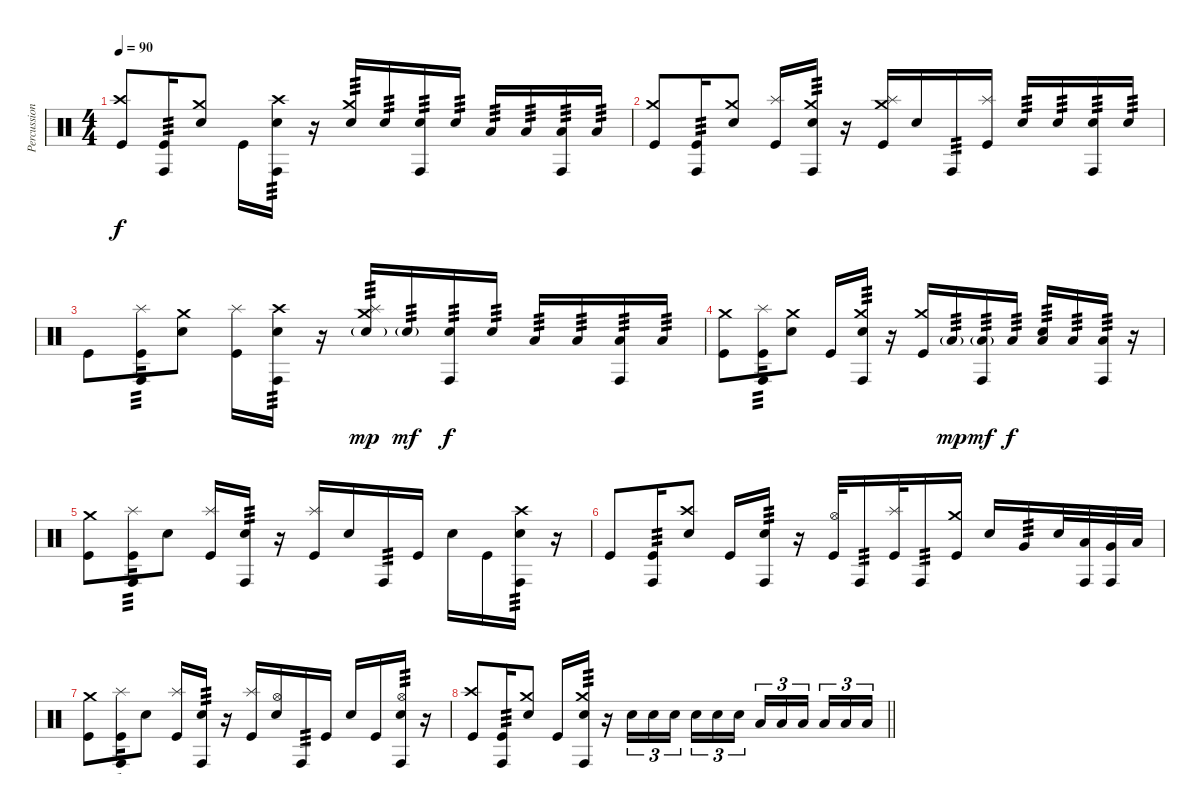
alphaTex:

\track ("Percussion" "Percussion") {instrument percussion}
\staff {score}
\articulation defaults
\ts (4 4)
\tempo 90
\clef neutral
\ks c
("Crash high (hit)" "Kick (hit)").8{dy f} ("Conga high (hit)" "Kick (hit)").16{tp 3} ("Crash medium (hit)" "Snare (hit) 2").8 "Kick (hit)".16 ("Crash high (hit)" "Snare (hit) 2" "Conga high (hit)").16{tp 3} r.16 ("Crash medium (hit)" "Snare (hit) 2").16{tp 3} "Snare (hit) 2".16{tp 3} ("Snare (hit) 2" "Conga high (hit)").16{tp 3} "Snare (hit) 2".16{tp 3} "Low Floor Tom (hit)".16{tp 3} "Low Floor Tom (hit)".16{tp 3} ("Conga high (hit)" "Low Floor Tom (hit)").16{tp 3} "Low Floor Tom (hit)".16{tp 3} |
("Crash medium (hit)" "Kick (hit)").8 ("Conga high (hit)" "Kick (hit)").16{tp 3} ("Crash medium (hit)" "Snare (hit) 2").8 ("Splash (hit)" "Kick (hit)").16 ("Crash medium (hit)" "Snare (hit) 2" "Conga high (hit)").16{tp 3} r.16 ("Crash medium (hit)" "Splash (hit)" "Kick (hit)").16 "Snare (hit) 2".16 "Conga high (hit)".16{tp 3} ("Splash (hit)" "Kick (hit)").16 "Snare (hit) 2".16{tp 3} "Snare (hit) 2".16{tp 3} ("Snare (hit) 2" "Conga high (hit)").16{tp 3} "Snare (hit) 2".16{tp 3} |
"Kick (hit)".8 ("Splash (hit)" "Conga high (hit)" "Kick (hit)").16{tp 3} ("Crash medium (hit)" "Snare (hit) 2").8 ("Splash (hit)" "Kick (hit)").16 ("Crash high (hit)" "Snare (hit) 2" "Conga high (hit)").16{tp 3} r.16 ("Crash medium (hit)" "Splash (hit)" "Snare (hit) 2"{g}).16{tp 3 dy mp} "Snare (hit) 2"{g}.16{tp 3 dy mf} ("Snare (hit) 2" "Conga high (hit)").16{tp 3 dy f} "Snare (hit) 2".16{tp 3} "Low Floor Tom (hit)".16{tp 3} "Low Floor Tom (hit)".16{tp 3} ("Conga high (hit)" "Low Floor Tom (hit)").16{tp 3} "Low Floor Tom (hit)".16{tp 3} |
("Crash medium (hit)" "Kick (hit)").8 ("Splash (hit)" "Conga high (hit)" "Kick (hit)").16{tp 3} ("Crash medium (hit)" "Snare (hit) 2").8 "Kick (hit)".16 ("Crash medium (hit)" "Snare (hit) 2" "Conga high (hit)").16{tp 3} r.16 ("Crash medium (hit)" "Kick (hit)").16 "Low Floor Tom (hit)"{g}.16{tp 3 dy mp} ("Conga high (hit)" "Low Floor Tom (hit)"{g}).16{tp 3 dy mf} "Low Floor Tom (hit)".16{tp 3 dy f} ("Snare (hit) 2" "Low Floor Tom (hit)").16{tp 3} "Low Floor Tom (hit)".16{tp 3} ("Conga high (hit)" "Low Floor Tom (hit)").16{tp 3} r.16 |
("Crash medium (hit)" "Kick (hit)").8 ("Splash (hit)" "Conga high (hit)" "Kick (hit)").16{tp 3} "Snare (hit) 2".8 ("Splash (hit)" "Kick (hit)").16 ("Snare (hit) 2" "Conga high (hit)").16{tp 3} r.16 ("Splash (hit)" "Kick (hit)").16 "Snare (hit) 2".16 "Conga high (hit)".16{tp 3} "Kick (hit)".16 "Snare (hit) 2".16 "Kick (hit)".16 ("Crash high (hit)" "Snare (hit) 2" "Conga high (hit)").16{tp 3} r.16 |
"Kick (hit)".8 ("Conga high (hit)" "Kick (hit)").16{tp 3} ("Crash high (hit)" "Snare (hit) 2").8 "Kick (hit)".16 ("Snare (hit) 2" "Conga high (hit)").16{tp 3} r.16 ("Hi-Hat (open)" "Kick (hit)").32 "Conga high (hit)".16{tp 3} ("Splash (hit)" "Kick (hit)").32 "Conga high (hit)".16{tp 3} ("Crash medium (hit)" "Kick (hit)").16 "Snare (hit) 2".16 "Very Low Tom (hit)".16{tp 3} "Snare (hit) 2".32 ("Low Tom (hit)" "Conga high (hit)").32 ("Very Low Tom (hit)" "Conga high (hit)").32 "Low Floor Tom (hit)".32 |
("Crash medium (hit)" "Kick (hit)").8 ("Splash (hit)" "Conga high (hit)" "Kick (hit)").16{tp 3} "Snare (hit) 2".8 ("Splash (hit)" "Kick (hit)").16 ("Snare (hit) 2" "Conga high (hit)").16{tp 3} r.16 ("Splash (hit)" "Kick (hit)").16 ("Hi-Hat (open)" "Snare (hit) 2").16 "Conga high (hit)".16{tp 3} "Kick (hit)".16 "Snare (hit) 2".16 "Kick (hit)".16 ("Hi-Hat (open)" "Snare (hit) 2" "Conga high (hit)").16{tp 3} r.16 |
\barLineRight lightlight
("Crash high (hit)" "Kick (hit)").8 ("Conga high (hit)" "Kick (hit)").16{tp 3} ("Crash medium (hit)" "Snare (hit) 2").8 "Kick (hit)".16 ("Crash medium (hit)" "Snare (hit) 2" "Conga high (hit)").16{tp 3} r.16 "Snare (hit) 2".16{tu (3 2)} "Snare (hit) 2".16{tu (3 2)} "Snare (hit) 2".16{tu (3 2) beam splitsecondary} "Snare (hit) 2".16{tu (3 2)} "Snare (hit) 2".16{tu (3 2)} "Snare (hit) 2".16{tu (3 2)} "Low Floor Tom (hit)".16{tu (3 2)} "Low Floor Tom (hit)".16{tu (3 2)} "Low Floor Tom (hit)".16{tu (3 2) beam splitsecondary} "Low Floor Tom (hit)".16{tu (3 2)} "Low Floor Tom (hit)".16{tu (3 2)} "Low Floor Tom (hit)".16{tu (3 2)}
